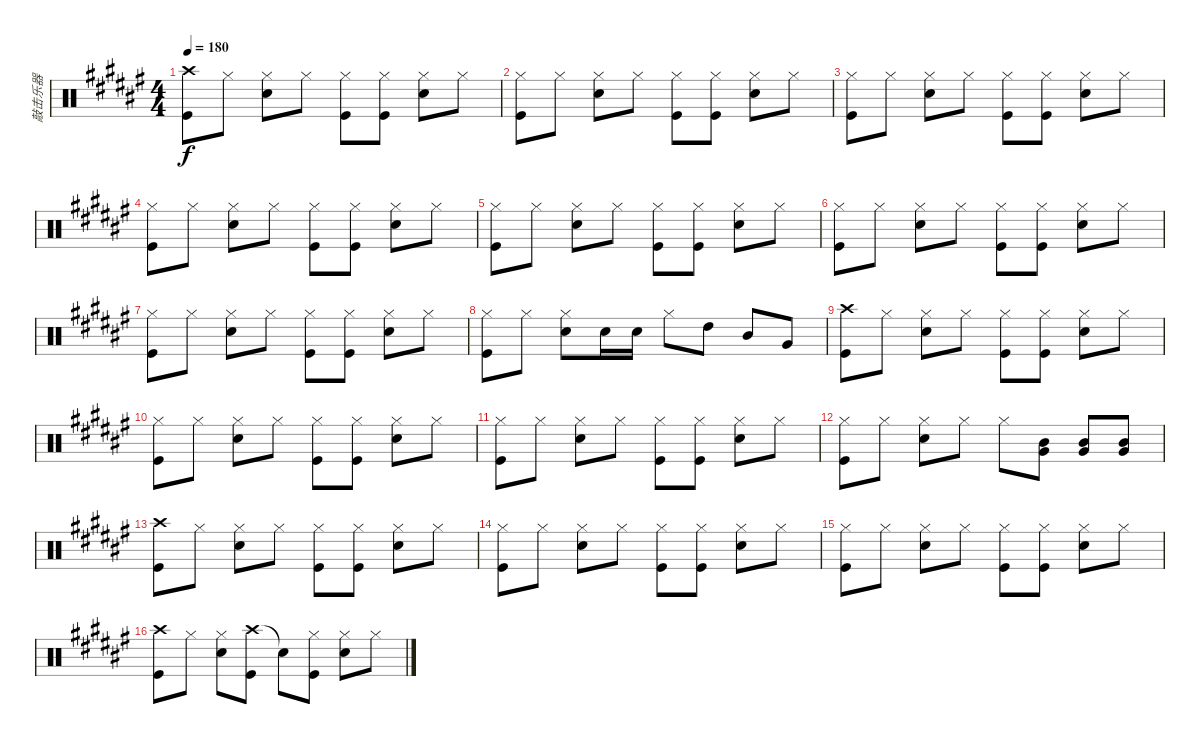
\track ("敲击乐器" "敲击乐器") {instrument percussion}
\staff {score}
\articulation defaults
\ts (4 4)
\tempo 180
\clef neutral
\ks f#
("Crash high (hit)" "Kick (hit)").8{dy f} "Hi-Hat (closed)".8 ("Hi-Hat (closed)" "Electric Snare (hit)").8 "Hi-Hat (closed)".8 ("Hi-Hat (closed)" "Kick (hit)").8 ("Hi-Hat (closed)" "Kick (hit)").8 ("Hi-Hat (closed)" "Electric Snare (hit)").8 "Hi-Hat (closed)".8 |
("Hi-Hat (closed)" "Kick (hit)").8 "Hi-Hat (closed)".8 ("Hi-Hat (closed)" "Electric Snare (hit)").8 "Hi-Hat (closed)".8 ("Hi-Hat (closed)" "Kick (hit)").8 ("Hi-Hat (closed)" "Kick (hit)").8 ("Hi-Hat (closed)" "Electric Snare (hit)").8 "Hi-Hat (closed)".8 |
("Hi-Hat (closed)" "Kick (hit)").8 "Hi-Hat (closed)".8 ("Hi-Hat (closed)" "Electric Snare (hit)").8 "Hi-Hat (closed)".8 ("Hi-Hat (closed)" "Kick (hit)").8 ("Hi-Hat (closed)" "Kick (hit)").8 ("Hi-Hat (closed)" "Electric Snare (hit)").8 "Hi-Hat (closed)".8 |
("Hi-Hat (closed)" "Kick (hit)").8 "Hi-Hat (closed)".8 ("Hi-Hat (closed)" "Electric Snare (hit)").8 "Hi-Hat (closed)".8 ("Hi-Hat (closed)" "Kick (hit)").8 ("Hi-Hat (closed)" "Kick (hit)").8 ("Hi-Hat (closed)" "Electric Snare (hit)").8 "Hi-Hat (closed)".8 |
("Hi-Hat (closed)" "Kick (hit)").8 "Hi-Hat (closed)".8 ("Hi-Hat (closed)" "Electric Snare (hit)").8 "Hi-Hat (closed)".8 ("Hi-Hat (closed)" "Kick (hit)").8 ("Hi-Hat (closed)" "Kick (hit)").8 ("Hi-Hat (closed)" "Electric Snare (hit)").8 "Hi-Hat (closed)".8 |
("Hi-Hat (closed)" "Kick (hit)").8 "Hi-Hat (closed)".8 ("Hi-Hat (closed)" "Electric Snare (hit)").8 "Hi-Hat (closed)".8 ("Hi-Hat (closed)" "Kick (hit)").8 ("Hi-Hat (closed)" "Kick (hit)").8 ("Hi-Hat (closed)" "Electric Snare (hit)").8 "Hi-Hat (closed)".8 |
("Hi-Hat (closed)" "Kick (hit)").8 "Hi-Hat (closed)".8 ("Hi-Hat (closed)" "Electric Snare (hit)").8 "Hi-Hat (closed)".8 ("Hi-Hat (closed)" "Kick (hit)").8 ("Hi-Hat (closed)" "Kick (hit)").8 ("Hi-Hat (closed)" "Electric Snare (hit)").8 "Hi-Hat (closed)".8 |
("Hi-Hat (closed)" "Kick (hit)").8 "Hi-Hat (closed)".8 ("Hi-Hat (closed)" "Electric Snare (hit)").8 "Electric Snare (hit)".16 "Electric Snare (hit)".16 "Hi-Hat (closed)".8 "High Tom (hit)".8 "Mid Tom (hit)".8 "Very Low Tom (hit)".8 |
("Crash high (hit)" "Kick (hit)").8 "Hi-Hat (closed)".8 ("Hi-Hat (closed)" "Electric Snare (hit)").8 "Hi-Hat (closed)".8 ("Hi-Hat (closed)" "Kick (hit)").8 ("Hi-Hat (closed)" "Kick (hit)").8 ("Hi-Hat (closed)" "Electric Snare (hit)").8 "Hi-Hat (closed)".8 |
("Hi-Hat (closed)" "Kick (hit)").8 "Hi-Hat (closed)".8 ("Hi-Hat (closed)" "Electric Snare (hit)").8 "Hi-Hat (closed)".8 ("Hi-Hat (closed)" "Kick (hit)").8 ("Hi-Hat (closed)" "Kick (hit)").8 ("Hi-Hat (closed)" "Electric Snare (hit)").8 "Hi-Hat (closed)".8 |
("Hi-Hat (closed)" "Kick (hit)").8 "Hi-Hat (closed)".8 ("Hi-Hat (closed)" "Electric Snare (hit)").8 "Hi-Hat (closed)".8 ("Hi-Hat (closed)" "Kick (hit)").8 ("Hi-Hat (closed)" "Kick (hit)").8 ("Hi-Hat (closed)" "Electric Snare (hit)").8 "Hi-Hat (closed)".8 |
("Hi-Hat (closed)" "Kick (hit)").8 "Hi-Hat (closed)".8 ("Hi-Hat (closed)" "Electric Snare (hit)").8 "Hi-Hat (closed)".8 "Hi-Hat (closed)".8 ("Very Low Tom (hit)" "Mid Tom (hit)").8 ("Very Low Tom (hit)" "Mid Tom (hit)").8 ("Very Low Tom (hit)" "Mid Tom (hit)").8 |
("Crash high (hit)" "Kick (hit)").8 "Hi-Hat (closed)".8 ("Hi-Hat (closed)" "Electric Snare (hit)").8 "Hi-Hat (closed)".8 ("Hi-Hat (closed)" "Kick (hit)").8 ("Hi-Hat (closed)" "Kick (hit)").8 ("Hi-Hat (closed)" "Electric Snare (hit)").8 "Hi-Hat (closed)".8 |
("Hi-Hat (closed)" "Kick (hit)").8 "Hi-Hat (closed)".8 ("Hi-Hat (closed)" "Electric Snare (hit)").8 "Hi-Hat (closed)".8 ("Hi-Hat (closed)" "Kick (hit)").8 ("Hi-Hat (closed)" "Kick (hit)").8 ("Hi-Hat (closed)" "Electric Snare (hit)").8 "Hi-Hat (closed)".8 |
("Hi-Hat (closed)" "Kick (hit)").8 "Hi-Hat (closed)".8 ("Hi-Hat (closed)" "Electric Snare (hit)").8 "Hi-Hat (closed)".8 ("Hi-Hat (closed)" "Kick (hit)").8 ("Hi-Hat (closed)" "Kick (hit)").8 ("Hi-Hat (closed)" "Electric Snare (hit)").8 "Hi-Hat (closed)".8 |
("Crash high (hit)" "Kick (hit)").8 "Hi-Hat (closed)".8 ("Hi-Hat (closed)" "Electric Snare (hit)").8 ("Crash high (hit)" "Kick (hit)").8 "Snare (hit)"{t}.8 ("Hi-Hat (closed)" "Kick (hit)").8 ("Hi-Hat (closed)" "Electric Snare (hit)").8 "Hi-Hat (closed)".8
